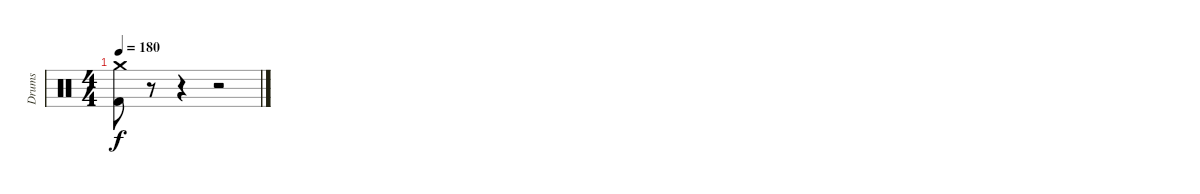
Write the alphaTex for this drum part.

\track ("Drums" "Drums") {instrument percussion}
\staff {score}
\articulation defaults
\ts (4 4)
\tempo 180
\clef neutral
\ks c
("Crash medium (hit)" "Kick (hit) 2").8{dy f} r.8 r.4 r.2
